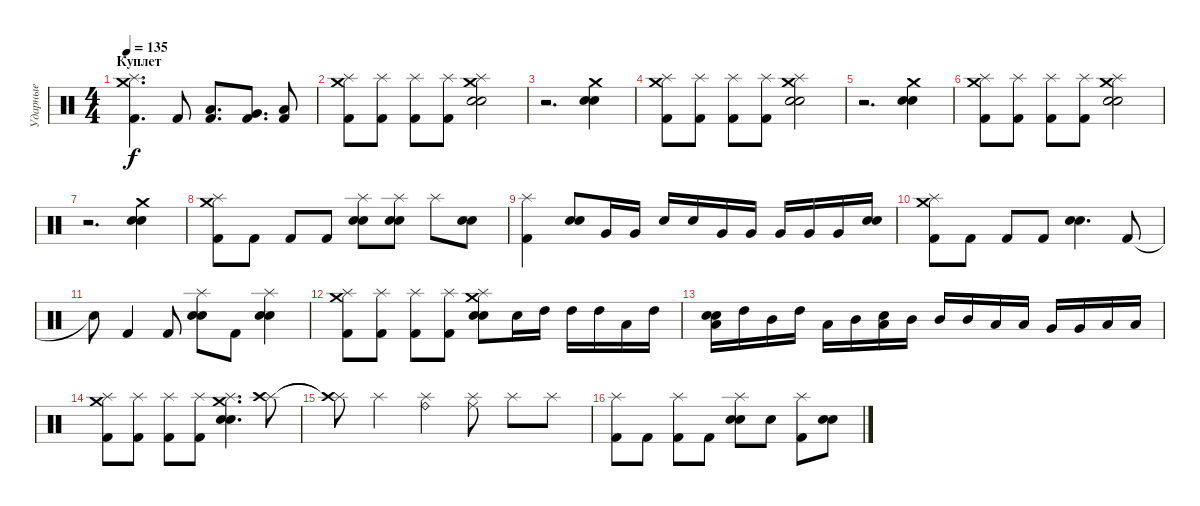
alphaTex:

\track ("Ударные" "Ударные") {instrument percussion}
\staff {score}
\articulation defaults
\ts (4 4)
\section ("" "Куплет")
\tempo 135
\clef neutral
\ks c
("Crash medium (hit)" "Splash (hit)" "Kick (hit) 2").4{d dy f} "Kick (hit) 2".8 ("Low Tom (hit)" "Kick (hit) 2").8{d} ("Very Low Tom (hit)" "Kick (hit) 2").8{d} ("Low Floor Tom (hit)" "Kick (hit) 2").8 |
("Crash medium (hit)" "Splash (hit)" "Kick (hit) 2").8 ("Splash (hit)" "Kick (hit) 2").8 ("Splash (hit)" "Kick (hit) 2").8 ("Splash (hit)" "Kick (hit) 2").8 ("Crash medium (hit)" "Splash (hit)" "Electric Snare (hit)" "Snare (hit) 2").2 |
r.2{d} ("Crash medium (hit)" "Electric Snare (hit)" "Snare (hit) 2").4 |
("Crash medium (hit)" "Splash (hit)" "Kick (hit) 2").8 ("Splash (hit)" "Kick (hit) 2").8 ("Splash (hit)" "Kick (hit) 2").8 ("Splash (hit)" "Kick (hit) 2").8 ("Crash medium (hit)" "Splash (hit)" "Electric Snare (hit)" "Snare (hit) 2").2 |
r.2{d} ("Crash medium (hit)" "Electric Snare (hit)" "Snare (hit) 2").4 |
("Crash medium (hit)" "Splash (hit)" "Kick (hit) 2").8 ("Splash (hit)" "Kick (hit) 2").8 ("Splash (hit)" "Kick (hit) 2").8 ("Splash (hit)" "Kick (hit) 2").8 ("Crash medium (hit)" "Splash (hit)" "Electric Snare (hit)" "Snare (hit) 2").2 |
r.2{d} ("Crash medium (hit)" "Electric Snare (hit)" "Snare (hit) 2").4 |
("Crash medium (hit)" "Splash (hit)" "Kick (hit) 2").8 "Kick (hit) 2".8 "Kick (hit) 2".8 "Kick (hit) 2".8 ("Splash (hit)" "Electric Snare (hit)" "Snare (hit) 2").8 ("Splash (hit)" "Electric Snare (hit)" "Snare (hit) 2").8 "Splash (hit)".8 ("Electric Snare (hit)" "Snare (hit) 2").8 |
("Splash (hit)" "Kick (hit) 2").4 ("Electric Snare (hit)" "Snare (hit) 2").8 "Very Low Tom (hit)".16 "Very Low Tom (hit)".16 "Electric Snare (hit)".16 "Electric Snare (hit)".16 "Very Low Tom (hit)".16 "Very Low Tom (hit)".16 "Very Low Tom (hit)".16 "Very Low Tom (hit)".16 "Very Low Tom (hit)".16 ("Electric Snare (hit)" "Snare (hit) 2").16 |
("Crash medium (hit)" "Splash (hit)" "Kick (hit) 2").8 "Kick (hit) 2".8 "Kick (hit) 2".8 "Kick (hit) 2".8 ("Electric Snare (hit)" "Snare (hit) 2").4{d} "Kick (hit) 2".8 |
"Snare (hit)"{t}.8 "Kick (hit) 2".4 "Kick (hit) 2".8 ("Splash (hit)" "Electric Snare (hit)" "Snare (hit) 2").8 "Kick (hit) 2".8 ("Splash (hit)" "Electric Snare (hit)" "Snare (hit) 2").4 |
("Crash medium (hit)" "Splash (hit)" "Kick (hit) 2").8 ("Splash (hit)" "Kick (hit) 2").8 ("Splash (hit)" "Kick (hit) 2").8 ("Splash (hit)" "Kick (hit) 2").8 ("Crash medium (hit)" "Splash (hit)" "Electric Snare (hit)" "Snare (hit) 2").8 "Electric Snare (hit)".16 "High Tom (hit)".16 "High Tom (hit)".16 "High Tom (hit)".16 "Low Tom (hit)".16 "High Tom (hit)".16 |
("Electric Snare (hit)" "Low Tom (hit)" "Snare (hit) 2").16 "High Tom (hit)".16 "Mid Tom (hit)".16 "High Tom (hit)".16 "Low Tom (hit)".16 "Mid Tom (hit)".16 ("Electric Snare (hit)" "Low Tom (hit)").16 "Mid Tom (hit)".16 "Mid Tom (hit)".16 "Mid Tom (hit)".16 "Low Tom (hit)".16 "Low Tom (hit)".16 "Very Low Tom (hit)".16 "Very Low Tom (hit)".16 "Low Floor Tom (hit)".16 "Low Floor Tom (hit)".16 |
("Crash medium (hit)" "Splash (hit)" "Kick (hit) 2").8 ("Splash (hit)" "Kick (hit) 2").8 ("Splash (hit)" "Kick (hit) 2").8 ("Splash (hit)" "Kick (hit) 2").8 ("Crash medium (hit)" "Splash (hit)" "Electric Snare (hit)" "Snare (hit) 2").4{d} ("Splash (hit)" "Crash high (hit)").8 |
("Splash (hit)"{t} "Crash high (hit)"{t}).8 "Splash (hit)".4 ("Splash (hit)" "Ride (bell)").4 ("Ride (middle)" "Splash (hit)").8 "Splash (hit)".8 "Splash (hit)".8 |
("Splash (hit)" "Kick (hit) 2").8 "Kick (hit) 2".8 ("Splash (hit)" "Kick (hit) 2").8 "Kick (hit) 2".8 ("Splash (hit)" "Electric Snare (hit)" "Snare (hit) 2").8 "Electric Snare (hit)".8 ("Splash (hit)" "Kick (hit) 2").8 ("Electric Snare (hit)" "Snare (hit) 2").8
